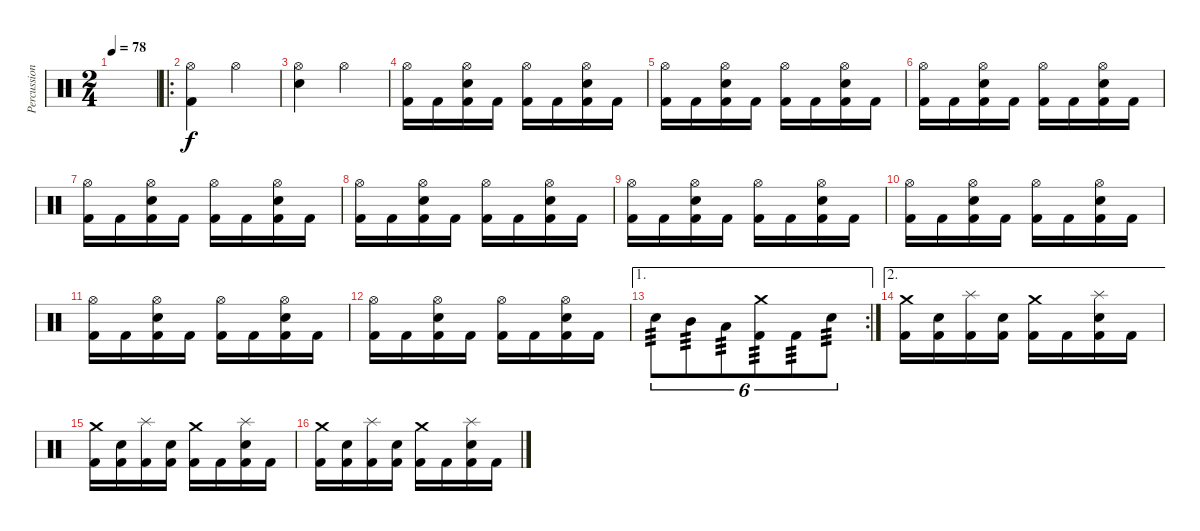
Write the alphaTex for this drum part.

\track ("Percussion" "Percussion") {instrument percussion}
\staff {score}
\articulation defaults
\ts (2 4)
\tempo 78
\tempo 135
\tempo 78
\clef neutral
\ks c
|
\ro
("Kick (hit) 2" "Hi-Hat (open)").4 "Hi-Hat (open)".4 |
("Snare (hit) 2" "Hi-Hat (open)").4 "Hi-Hat (open)".4 |
("Kick (hit) 2" "Hi-Hat (open)").16 "Kick (hit) 2".16 ("Kick (hit) 2" "Snare (hit) 2" "Hi-Hat (open)").16 "Kick (hit) 2".16 ("Kick (hit) 2" "Hi-Hat (open)").16 "Kick (hit) 2".16 ("Kick (hit) 2" "Snare (hit) 2" "Hi-Hat (open)").16 "Kick (hit) 2".16 |
("Kick (hit) 2" "Hi-Hat (open)").16 "Kick (hit) 2".16 ("Kick (hit) 2" "Snare (hit) 2" "Hi-Hat (open)").16 "Kick (hit) 2".16 ("Kick (hit) 2" "Hi-Hat (open)").16 "Kick (hit) 2".16 ("Kick (hit) 2" "Snare (hit) 2" "Hi-Hat (open)").16 "Kick (hit) 2".16 |
("Kick (hit) 2" "Hi-Hat (open)").16 "Kick (hit) 2".16 ("Kick (hit) 2" "Snare (hit) 2" "Hi-Hat (open)").16 "Kick (hit) 2".16 ("Kick (hit) 2" "Hi-Hat (open)").16 "Kick (hit) 2".16 ("Kick (hit) 2" "Snare (hit) 2" "Hi-Hat (open)").16 "Kick (hit) 2".16 |
("Kick (hit) 2" "Hi-Hat (open)").16 "Kick (hit) 2".16 ("Kick (hit) 2" "Snare (hit) 2" "Hi-Hat (open)").16 "Kick (hit) 2".16 ("Kick (hit) 2" "Hi-Hat (open)").16 "Kick (hit) 2".16 ("Kick (hit) 2" "Snare (hit) 2" "Hi-Hat (open)").16 "Kick (hit) 2".16 |
("Kick (hit) 2" "Hi-Hat (open)").16 "Kick (hit) 2".16 ("Kick (hit) 2" "Snare (hit) 2" "Hi-Hat (open)").16 "Kick (hit) 2".16 ("Kick (hit) 2" "Hi-Hat (open)").16 "Kick (hit) 2".16 ("Kick (hit) 2" "Snare (hit) 2" "Hi-Hat (open)").16 "Kick (hit) 2".16 |
("Kick (hit) 2" "Hi-Hat (open)").16 "Kick (hit) 2".16 ("Kick (hit) 2" "Snare (hit) 2" "Hi-Hat (open)").16 "Kick (hit) 2".16 ("Kick (hit) 2" "Hi-Hat (open)").16 "Kick (hit) 2".16 ("Kick (hit) 2" "Snare (hit) 2" "Hi-Hat (open)").16 "Kick (hit) 2".16 |
("Kick (hit) 2" "Hi-Hat (open)").16 "Kick (hit) 2".16 ("Kick (hit) 2" "Snare (hit) 2" "Hi-Hat (open)").16 "Kick (hit) 2".16 ("Kick (hit) 2" "Hi-Hat (open)").16 "Kick (hit) 2".16 ("Kick (hit) 2" "Snare (hit) 2" "Hi-Hat (open)").16 "Kick (hit) 2".16 |
("Kick (hit) 2" "Hi-Hat (open)").16 "Kick (hit) 2".16 ("Kick (hit) 2" "Snare (hit) 2" "Hi-Hat (open)").16 "Kick (hit) 2".16 ("Kick (hit) 2" "Hi-Hat (open)").16 "Kick (hit) 2".16 ("Kick (hit) 2" "Snare (hit) 2" "Hi-Hat (open)").16 "Kick (hit) 2".16 |
("Kick (hit) 2" "Hi-Hat (open)").16 "Kick (hit) 2".16 ("Kick (hit) 2" "Snare (hit) 2" "Hi-Hat (open)").16 "Kick (hit) 2".16 ("Kick (hit) 2" "Hi-Hat (open)").16 "Kick (hit) 2".16 ("Kick (hit) 2" "Snare (hit) 2" "Hi-Hat (open)").16 "Kick (hit) 2".16 |
\ae 1
\rc 2 "Snare (hit) 2".8{tu (6 4) tp 3} "Mid Tom (hit)".8{tu (6 4) tp 3} "Low Tom (hit)".8{tu (6 4) tp 3}
("Crash medium (hit)" "Kick (hit) 2").8{tu (6 4) tp 3} "Kick (hit) 2".8{tu (6 4) tp 3} "Snare (hit) 2".8{tu (6 4) tp 3} |
\ae 2
("Kick (hit) 2" "Crash medium (hit)").16 ("Kick (hit) 2" "Snare (hit) 2").16 ("Kick (hit) 2" "Splash (hit)").16 ("Kick (hit) 2" "Snare (hit) 2").16 ("Kick (hit) 2" "Crash medium (hit)").16 "Kick (hit) 2".16 ("Kick (hit) 2" "Snare (hit) 2" "Splash (hit)").16 "Kick (hit) 2".16 |
("Kick (hit) 2" "Crash medium (hit)").16 ("Kick (hit) 2" "Snare (hit) 2").16 ("Kick (hit) 2" "Splash (hit)").16 ("Kick (hit) 2" "Snare (hit) 2").16 ("Kick (hit) 2" "Crash medium (hit)").16 "Kick (hit) 2".16 ("Kick (hit) 2" "Snare (hit) 2" "Splash (hit)").16 "Kick (hit) 2".16 |
("Kick (hit) 2" "Crash medium (hit)").16 ("Kick (hit) 2" "Snare (hit) 2").16 ("Kick (hit) 2" "Splash (hit)").16 ("Kick (hit) 2" "Snare (hit) 2").16 ("Kick (hit) 2" "Crash medium (hit)").16 "Kick (hit) 2".16 ("Kick (hit) 2" "Snare (hit) 2" "Splash (hit)").16 "Kick (hit) 2".16
